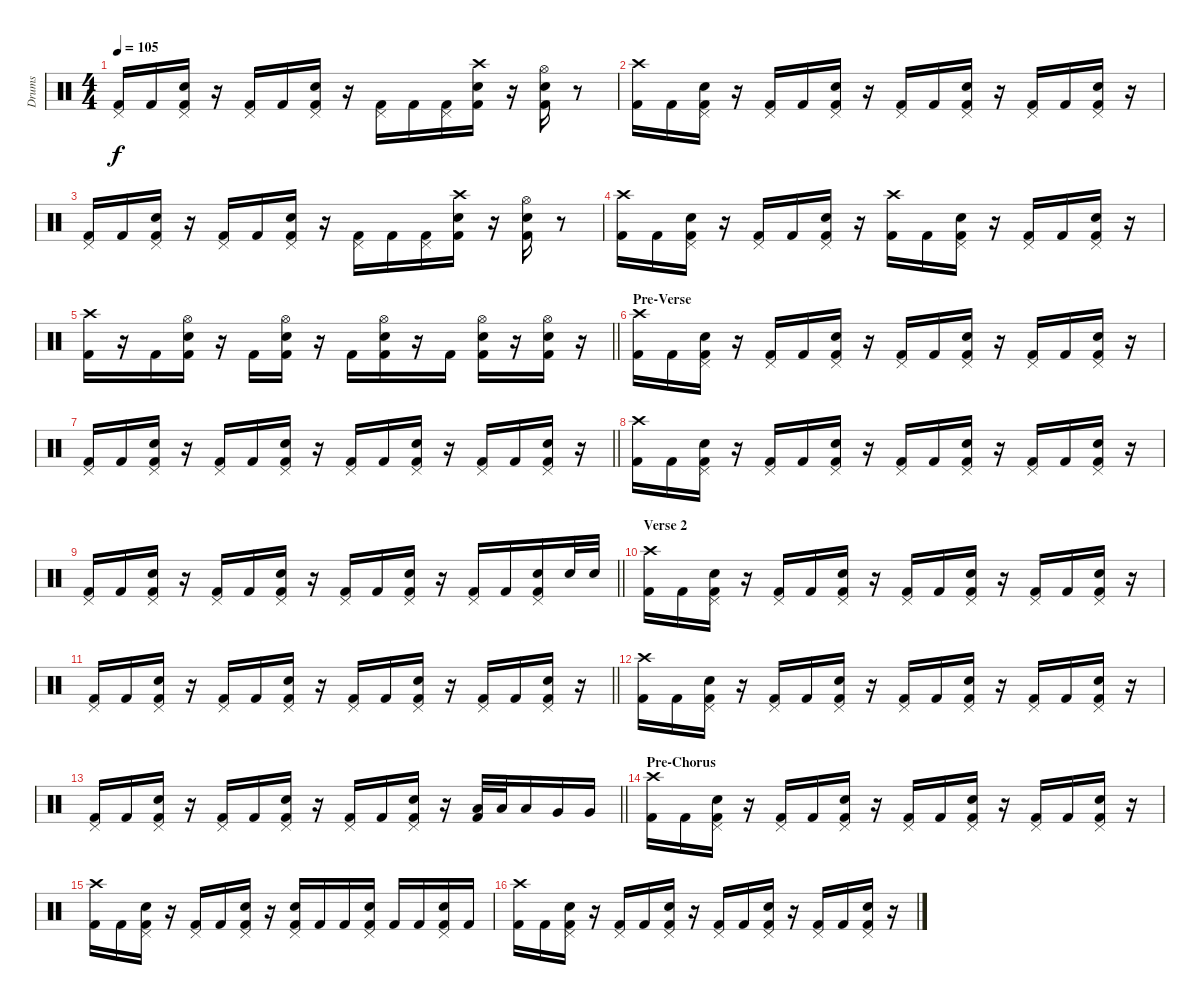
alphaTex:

\track ("Drums" "Drums") {instrument percussion}
\staff {score}
\articulation defaults
\ts (4 4)
\tempo 105
\clef neutral
\ks c
("Pedal Hi-Hat (hit)" "Kick (hit) 2").16{dy f} "Kick (hit) 2".16 ("Pedal Hi-Hat (hit)" "Snare (hit) 2" "Kick (hit) 2").16 r.16 ("Pedal Hi-Hat (hit)" "Kick (hit) 2").16 "Kick (hit) 2".16 ("Pedal Hi-Hat (hit)" "Snare (hit) 2" "Kick (hit) 2").16 r.16 ("Pedal Hi-Hat (hit)" "Kick (hit) 2").16 "Kick (hit) 2".16 ("Pedal Hi-Hat (hit)" "Kick (hit) 2").16 ("Crash high (hit)" "Snare (hit) 2" "Kick (hit) 2").16 r.16 ("Hi-Hat (open)" "Snare (hit) 2" "Kick (hit) 2").16 r.8 |
("Crash high (hit)" "Kick (hit) 2").16 "Kick (hit) 2".16 ("Pedal Hi-Hat (hit)" "Snare (hit) 2" "Kick (hit) 2").16 r.16 ("Pedal Hi-Hat (hit)" "Kick (hit) 2").16 "Kick (hit) 2".16 ("Pedal Hi-Hat (hit)" "Snare (hit) 2" "Kick (hit) 2").16 r.16 ("Pedal Hi-Hat (hit)" "Kick (hit) 2").16 "Kick (hit) 2".16 ("Pedal Hi-Hat (hit)" "Snare (hit) 2" "Kick (hit) 2").16 r.16 ("Pedal Hi-Hat (hit)" "Kick (hit) 2").16 "Kick (hit) 2".16 ("Pedal Hi-Hat (hit)" "Snare (hit) 2" "Kick (hit) 2").16 r.16 |
("Pedal Hi-Hat (hit)" "Kick (hit) 2").16 "Kick (hit) 2".16 ("Pedal Hi-Hat (hit)" "Snare (hit) 2" "Kick (hit) 2").16 r.16 ("Pedal Hi-Hat (hit)" "Kick (hit) 2").16 "Kick (hit) 2".16 ("Pedal Hi-Hat (hit)" "Snare (hit) 2" "Kick (hit) 2").16 r.16 ("Pedal Hi-Hat (hit)" "Kick (hit) 2").16 "Kick (hit) 2".16 ("Pedal Hi-Hat (hit)" "Kick (hit) 2").16 ("Crash high (hit)" "Snare (hit) 2" "Kick (hit) 2").16 r.16 ("Hi-Hat (open)" "Snare (hit) 2" "Kick (hit) 2").16 r.8 |
("Crash high (hit)" "Kick (hit) 2").16 "Kick (hit) 2".16 ("Pedal Hi-Hat (hit)" "Snare (hit) 2" "Kick (hit) 2").16 r.16 ("Pedal Hi-Hat (hit)" "Kick (hit) 2").16 "Kick (hit) 2".16 ("Pedal Hi-Hat (hit)" "Snare (hit) 2" "Kick (hit) 2").16 r.16 ("Crash high (hit)" "Kick (hit) 2").16 "Kick (hit) 2".16 ("Pedal Hi-Hat (hit)" "Snare (hit) 2" "Kick (hit) 2").16 r.16 ("Pedal Hi-Hat (hit)" "Kick (hit) 2").16 "Kick (hit) 2".16 ("Pedal Hi-Hat (hit)" "Snare (hit) 2" "Kick (hit) 2").16 r.16 |
\barLineRight lightlight
("Crash high (hit)" "Kick (hit) 2").16 r.16 "Kick (hit) 2".16 ("Hi-Hat (open)" "Snare (hit) 2" "Kick (hit) 2").16 r.16 "Kick (hit) 2".16 ("Hi-Hat (open)" "Snare (hit) 2" "Kick (hit) 2").16 r.16 "Kick (hit) 2".16 ("Hi-Hat (open)" "Snare (hit) 2" "Kick (hit) 2").16 r.16 "Kick (hit) 2".16 ("Hi-Hat (open)" "Snare (hit) 2" "Kick (hit) 2").16 r.16 ("Hi-Hat (open)" "Snare (hit) 2" "Kick (hit) 2").16 r.16 |
\section ("" "Pre-Verse")
("Crash high (hit)" "Kick (hit) 2").16 "Kick (hit) 2".16 ("Pedal Hi-Hat (hit)" "Snare (hit) 2" "Kick (hit) 2").16 r.16 ("Pedal Hi-Hat (hit)" "Kick (hit) 2").16 "Kick (hit) 2".16 ("Pedal Hi-Hat (hit)" "Snare (hit) 2" "Kick (hit) 2").16 r.16 ("Pedal Hi-Hat (hit)" "Kick (hit) 2").16 "Kick (hit) 2".16 ("Pedal Hi-Hat (hit)" "Snare (hit) 2" "Kick (hit) 2").16 r.16 ("Pedal Hi-Hat (hit)" "Kick (hit) 2").16 "Kick (hit) 2".16 ("Pedal Hi-Hat (hit)" "Snare (hit) 2" "Kick (hit) 2").16 r.16 |
\barLineRight lightlight
("Pedal Hi-Hat (hit)" "Kick (hit) 2").16 "Kick (hit) 2".16 ("Pedal Hi-Hat (hit)" "Snare (hit) 2" "Kick (hit) 2").16 r.16 ("Pedal Hi-Hat (hit)" "Kick (hit) 2").16 "Kick (hit) 2".16 ("Pedal Hi-Hat (hit)" "Snare (hit) 2" "Kick (hit) 2").16 r.16 ("Pedal Hi-Hat (hit)" "Kick (hit) 2").16 "Kick (hit) 2".16 ("Pedal Hi-Hat (hit)" "Snare (hit) 2" "Kick (hit) 2").16 r.16 ("Pedal Hi-Hat (hit)" "Kick (hit) 2").16 "Kick (hit) 2".16 ("Pedal Hi-Hat (hit)" "Snare (hit) 2" "Kick (hit) 2").16 r.16 |
("Crash high (hit)" "Kick (hit) 2").16 "Kick (hit) 2".16 ("Pedal Hi-Hat (hit)" "Snare (hit) 2" "Kick (hit) 2").16 r.16 ("Pedal Hi-Hat (hit)" "Kick (hit) 2").16 "Kick (hit) 2".16 ("Pedal Hi-Hat (hit)" "Snare (hit) 2" "Kick (hit) 2").16 r.16 ("Pedal Hi-Hat (hit)" "Kick (hit) 2").16 "Kick (hit) 2".16 ("Pedal Hi-Hat (hit)" "Snare (hit) 2" "Kick (hit) 2").16 r.16 ("Pedal Hi-Hat (hit)" "Kick (hit) 2").16 "Kick (hit) 2".16 ("Pedal Hi-Hat (hit)" "Snare (hit) 2" "Kick (hit) 2").16 r.16 |
\barLineRight lightlight
("Pedal Hi-Hat (hit)" "Kick (hit) 2").16 "Kick (hit) 2".16 ("Pedal Hi-Hat (hit)" "Snare (hit) 2" "Kick (hit) 2").16 r.16 ("Pedal Hi-Hat (hit)" "Kick (hit) 2").16 "Kick (hit) 2".16 ("Pedal Hi-Hat (hit)" "Snare (hit) 2" "Kick (hit) 2").16 r.16 ("Pedal Hi-Hat (hit)" "Kick (hit) 2").16 "Kick (hit) 2".16 ("Pedal Hi-Hat (hit)" "Snare (hit) 2" "Kick (hit) 2").16 r.16 ("Pedal Hi-Hat (hit)" "Kick (hit) 2").16 "Kick (hit) 2".16 ("Pedal Hi-Hat (hit)" "Snare (hit) 2" "Kick (hit) 2").16 "Snare (hit) 2".32 "Snare (hit) 2".32 |
\section ("" "Verse 2")
("Crash high (hit)" "Kick (hit) 2").16 "Kick (hit) 2".16 ("Pedal Hi-Hat (hit)" "Snare (hit) 2" "Kick (hit) 2").16 r.16 ("Pedal Hi-Hat (hit)" "Kick (hit) 2").16 "Kick (hit) 2".16 ("Pedal Hi-Hat (hit)" "Snare (hit) 2" "Kick (hit) 2").16 r.16 ("Pedal Hi-Hat (hit)" "Kick (hit) 2").16 "Kick (hit) 2".16 ("Pedal Hi-Hat (hit)" "Snare (hit) 2" "Kick (hit) 2").16 r.16 ("Pedal Hi-Hat (hit)" "Kick (hit) 2").16 "Kick (hit) 2".16 ("Pedal Hi-Hat (hit)" "Snare (hit) 2" "Kick (hit) 2").16 r.16 |
\barLineRight lightlight
("Pedal Hi-Hat (hit)" "Kick (hit) 2").16 "Kick (hit) 2".16 ("Pedal Hi-Hat (hit)" "Snare (hit) 2" "Kick (hit) 2").16 r.16 ("Pedal Hi-Hat (hit)" "Kick (hit) 2").16 "Kick (hit) 2".16 ("Pedal Hi-Hat (hit)" "Snare (hit) 2" "Kick (hit) 2").16 r.16 ("Pedal Hi-Hat (hit)" "Kick (hit) 2").16 "Kick (hit) 2".16 ("Pedal Hi-Hat (hit)" "Snare (hit) 2" "Kick (hit) 2").16 r.16 ("Pedal Hi-Hat (hit)" "Kick (hit) 2").16 "Kick (hit) 2".16 ("Pedal Hi-Hat (hit)" "Snare (hit) 2" "Kick (hit) 2").16 r.16 |
("Crash high (hit)" "Kick (hit) 2").16 "Kick (hit) 2".16 ("Pedal Hi-Hat (hit)" "Snare (hit) 2" "Kick (hit) 2").16 r.16 ("Pedal Hi-Hat (hit)" "Kick (hit) 2").16 "Kick (hit) 2".16 ("Pedal Hi-Hat (hit)" "Snare (hit) 2" "Kick (hit) 2").16 r.16 ("Pedal Hi-Hat (hit)" "Kick (hit) 2").16 "Kick (hit) 2".16 ("Pedal Hi-Hat (hit)" "Snare (hit) 2" "Kick (hit) 2").16 r.16 ("Pedal Hi-Hat (hit)" "Kick (hit) 2").16 "Kick (hit) 2".16 ("Pedal Hi-Hat (hit)" "Snare (hit) 2" "Kick (hit) 2").16 r.16 |
\barLineRight lightlight
("Pedal Hi-Hat (hit)" "Kick (hit) 2").16 "Kick (hit) 2".16 ("Pedal Hi-Hat (hit)" "Snare (hit) 2" "Kick (hit) 2").16 r.16 ("Pedal Hi-Hat (hit)" "Kick (hit) 2").16 "Kick (hit) 2".16 ("Pedal Hi-Hat (hit)" "Snare (hit) 2" "Kick (hit) 2").16 r.16 ("Pedal Hi-Hat (hit)" "Kick (hit) 2").16 "Kick (hit) 2".16 ("Pedal Hi-Hat (hit)" "Snare (hit) 2" "Kick (hit) 2").16 r.16 ("Low Tom (hit)" "Kick (hit) 2").32 "Low Tom (hit)".32 "Low Tom (hit)".16 "Very Low Tom (hit)".16 "Very Low Tom (hit)".16 |
\section ("" "Pre-Chorus")
("Crash high (hit)" "Kick (hit) 2").16 "Kick (hit) 2".16 ("Pedal Hi-Hat (hit)" "Snare (hit) 2" "Kick (hit) 2").16 r.16 ("Pedal Hi-Hat (hit)" "Kick (hit) 2").16 "Kick (hit) 2".16 ("Pedal Hi-Hat (hit)" "Snare (hit) 2" "Kick (hit) 2").16 r.16 ("Pedal Hi-Hat (hit)" "Kick (hit) 2").16 "Kick (hit) 2".16 ("Pedal Hi-Hat (hit)" "Snare (hit) 2" "Kick (hit) 2").16 r.16 ("Pedal Hi-Hat (hit)" "Kick (hit) 2").16 "Kick (hit) 2".16 ("Pedal Hi-Hat (hit)" "Snare (hit) 2" "Kick (hit) 2").16 r.16 |
("Crash high (hit)" "Kick (hit) 2").16 "Kick (hit) 2".16 ("Pedal Hi-Hat (hit)" "Snare (hit) 2" "Kick (hit) 2").16 r.16 ("Pedal Hi-Hat (hit)" "Kick (hit) 2").16 "Kick (hit) 2".16 ("Pedal Hi-Hat (hit)" "Snare (hit) 2" "Kick (hit) 2").16 r.16 ("Pedal Hi-Hat (hit)" "Snare (hit) 2" "Kick (hit) 2").16 "Kick (hit) 2".16 "Kick (hit) 2".16 ("Pedal Hi-Hat (hit)" "Snare (hit) 2" "Kick (hit) 2").16 "Kick (hit) 2".16 "Kick (hit) 2".16 ("Pedal Hi-Hat (hit)" "Snare (hit) 2" "Kick (hit) 2").16 "Kick (hit) 2".16 |
("Crash high (hit)" "Kick (hit) 2").16 "Kick (hit) 2".16 ("Pedal Hi-Hat (hit)" "Snare (hit) 2" "Kick (hit) 2").16 r.16 ("Pedal Hi-Hat (hit)" "Kick (hit) 2").16 "Kick (hit) 2".16 ("Pedal Hi-Hat (hit)" "Snare (hit) 2" "Kick (hit) 2").16 r.16 ("Pedal Hi-Hat (hit)" "Kick (hit) 2").16 "Kick (hit) 2".16 ("Pedal Hi-Hat (hit)" "Snare (hit) 2" "Kick (hit) 2").16 r.16 ("Pedal Hi-Hat (hit)" "Kick (hit) 2").16 "Kick (hit) 2".16 ("Pedal Hi-Hat (hit)" "Snare (hit) 2" "Kick (hit) 2").16 r.16
